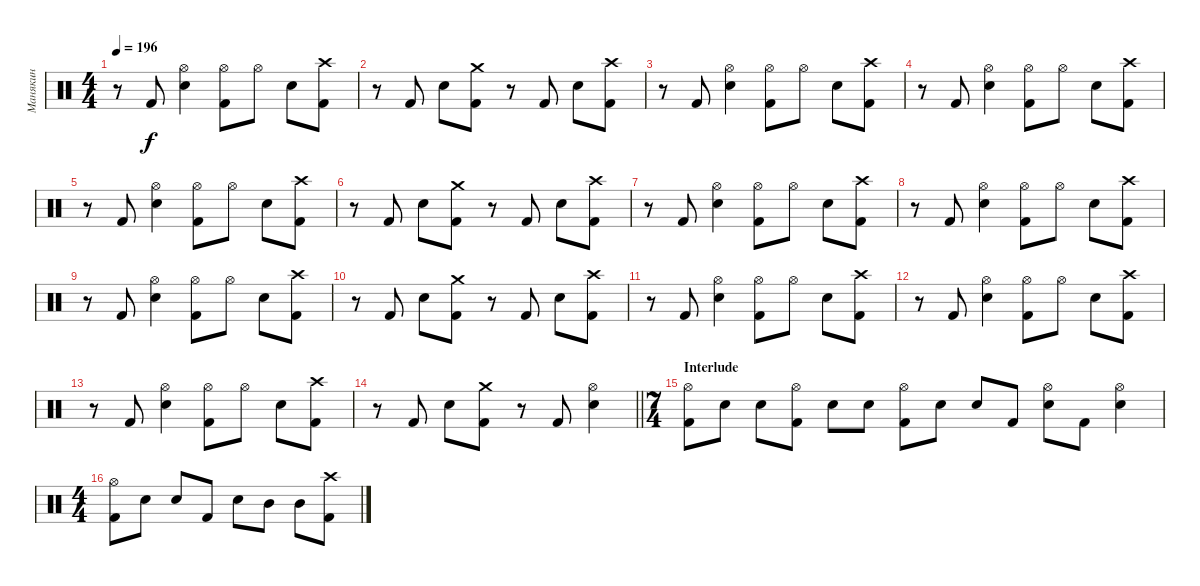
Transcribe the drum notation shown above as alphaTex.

\track ("Манякин" "Манякин") {instrument percussion}
\staff {score}
\articulation defaults
\ts (4 4)
\tempo 196
\clef neutral
\ks c
r.8{dy f} "Kick (hit) 2".8 ("Hi-Hat (open)" "Electric Snare (hit)").4 ("Hi-Hat (open)" "Kick (hit) 2").8 "Hi-Hat (open)".8 "Electric Snare (hit)".8 ("Crash high (hit)" "Kick (hit) 2").8 |
r.8 "Kick (hit) 2".8 "Electric Snare (hit)".8 ("Crash medium (hit)" "Kick (hit) 2").8 r.8 "Kick (hit) 2".8 "Electric Snare (hit)".8 ("Crash high (hit)" "Kick (hit) 2").8 |
r.8 "Kick (hit) 2".8 ("Hi-Hat (open)" "Electric Snare (hit)").4 ("Hi-Hat (open)" "Kick (hit) 2").8 "Hi-Hat (open)".8 "Electric Snare (hit)".8 ("Crash high (hit)" "Kick (hit) 2").8 |
r.8 "Kick (hit) 2".8 ("Hi-Hat (open)" "Electric Snare (hit)").4 ("Hi-Hat (open)" "Kick (hit) 2").8 "Hi-Hat (open)".8 "Electric Snare (hit)".8 ("Crash high (hit)" "Kick (hit) 2").8 |
r.8 "Kick (hit) 2".8 ("Hi-Hat (open)" "Electric Snare (hit)").4 ("Hi-Hat (open)" "Kick (hit) 2").8 "Hi-Hat (open)".8 "Electric Snare (hit)".8 ("Crash high (hit)" "Kick (hit) 2").8 |
r.8 "Kick (hit) 2".8 "Electric Snare (hit)".8 ("Crash medium (hit)" "Kick (hit) 2").8 r.8 "Kick (hit) 2".8 "Electric Snare (hit)".8 ("Crash high (hit)" "Kick (hit) 2").8 |
r.8 "Kick (hit) 2".8 ("Hi-Hat (open)" "Electric Snare (hit)").4 ("Hi-Hat (open)" "Kick (hit) 2").8 "Hi-Hat (open)".8 "Electric Snare (hit)".8 ("Crash high (hit)" "Kick (hit) 2").8 |
r.8 "Kick (hit) 2".8 ("Hi-Hat (open)" "Electric Snare (hit)").4 ("Hi-Hat (open)" "Kick (hit) 2").8 "Hi-Hat (open)".8 "Electric Snare (hit)".8 ("Crash high (hit)" "Kick (hit) 2").8 |
r.8 "Kick (hit) 2".8 ("Hi-Hat (open)" "Electric Snare (hit)").4 ("Hi-Hat (open)" "Kick (hit) 2").8 "Hi-Hat (open)".8 "Electric Snare (hit)".8 ("Crash high (hit)" "Kick (hit) 2").8 |
r.8 "Kick (hit) 2".8 "Electric Snare (hit)".8 ("Crash medium (hit)" "Kick (hit) 2").8 r.8 "Kick (hit) 2".8 "Electric Snare (hit)".8 ("Crash high (hit)" "Kick (hit) 2").8 |
r.8 "Kick (hit) 2".8 ("Hi-Hat (open)" "Electric Snare (hit)").4 ("Hi-Hat (open)" "Kick (hit) 2").8 "Hi-Hat (open)".8 "Electric Snare (hit)".8 ("Crash high (hit)" "Kick (hit) 2").8 |
r.8 "Kick (hit) 2".8 ("Hi-Hat (open)" "Electric Snare (hit)").4 ("Hi-Hat (open)" "Kick (hit) 2").8 "Hi-Hat (open)".8 "Electric Snare (hit)".8 ("Crash high (hit)" "Kick (hit) 2").8 |
r.8 "Kick (hit) 2".8 ("Hi-Hat (open)" "Electric Snare (hit)").4 ("Hi-Hat (open)" "Kick (hit) 2").8 "Hi-Hat (open)".8 "Electric Snare (hit)".8 ("Crash high (hit)" "Kick (hit) 2").8 |
\barLineRight lightlight
r.8 "Kick (hit) 2".8 "Electric Snare (hit)".8 ("Crash medium (hit)" "Kick (hit) 2").8 r.8 "Kick (hit) 2".8 ("Hi-Hat (open)" "Electric Snare (hit)").4 |
\ts (7 4)
\section ("" "Interlude")
("Hi-Hat (open)" "Kick (hit) 2").8 "Electric Snare (hit)".8 "Electric Snare (hit)".8 ("Hi-Hat (open)" "Kick (hit) 2").8 "Electric Snare (hit)".8 "Electric Snare (hit)".8 ("Hi-Hat (open)" "Kick (hit) 2").8 "Electric Snare (hit)".8 "Electric Snare (hit)".8 "Kick (hit) 2".8 ("Hi-Hat (open)" "Electric Snare (hit)").8 "Kick (hit) 2".8 ("Hi-Hat (open)" "Electric Snare (hit)").4 |
\ts (4 4)
("Hi-Hat (open)" "Kick (hit) 2").8 "Electric Snare (hit)".8 "Electric Snare (hit)".8 "Kick (hit) 2".8 "Electric Snare (hit)".8 "Mid Tom (hit)".8 "Mid Tom (hit)".8 ("Crash high (hit)" "Kick (hit) 2").8
